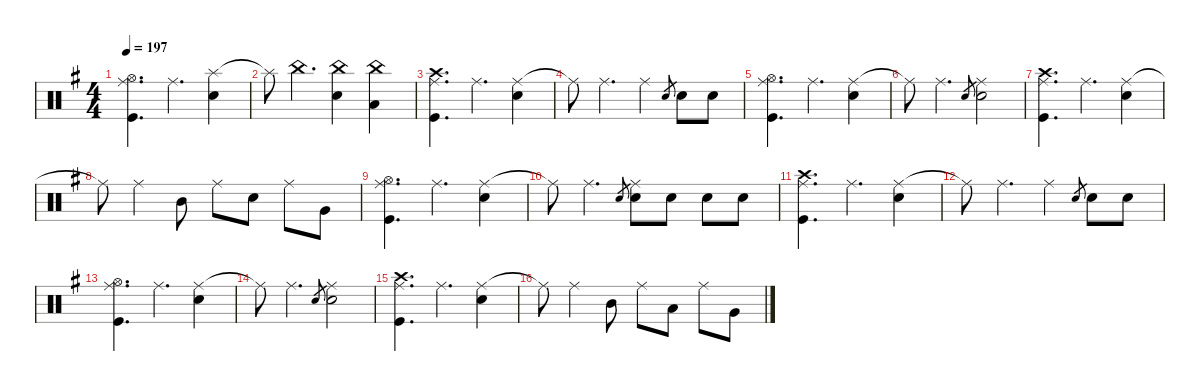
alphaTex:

\defaultSystemsLayout 4
\hideDynamics
\bracketExtendMode nobrackets
\singleTrackTrackNamePolicy hidden
\multiTrackTrackNamePolicy hidden
\firstSystemTrackNameMode fullname
\firstSystemTrackNameOrientation horizontal
\otherSystemsTrackNameOrientation horizontal
\track ("Drums" "drm.") {defaultSystemsLayout 4 instrument percussion}
\staff {score}
\articulation defaults
\ts (4 4)
\tempo 197
\clef neutral
\ks eminor
("Hi-Hat (open)"{acc forcenatural} "Ride (middle)"{acc forcenatural} "Kick (hit)"{acc forcenatural}).4{d dy f beam Down} "Ride (middle)"{acc forcenatural}.4{d beam Down} ("Splash (hit)"{acc forcenatural} "Snare (hit) 2"{acc forcenatural}).4{dy mp beam Down} |
"Splash (hit)"{t acc forcenatural}.8{dy f beam Down} "China (hit)"{acc forcenatural}.4{d dy p beam Down} ("China (hit)"{acc forcenatural} "Snare (hit) 2"{acc forcenatural}).4{dy mp beam Down} ("China (hit)"{acc forcenatural} "Low Tom (hit)"{acc forcenatural}).4{dy mf beam Down} |
("Crash high (hit)"{acc forcenatural} "Ride (middle)"{acc forcenatural} "Kick (hit)"{acc forcenatural}).4{d dy f beam Down} "Ride (middle)"{acc forcenatural}.4{d beam Down} ("Ride (middle)"{acc forcenatural} "Snare (hit) 2"{acc forcenatural}).4{beam Down} |
"Ride (middle)"{t acc forcenatural}.8{beam Down} "Ride (middle)"{acc forcenatural}.4{d beam Down} "Ride (middle)"{acc forcenatural}.4{beam Down} "Electric Snare (hit)"{acc forcenatural}.8{gr dy p beam Up} "Snare (hit) 2"{acc forcenatural}.8{dy mp beam Down} "Snare (hit) 2"{acc forcenatural}.8{dy mf beam Down} |
("Hi-Hat (open)"{acc forcenatural} "Ride (middle)"{acc forcenatural} "Kick (hit)"{acc forcenatural}).4{d dy f beam Down} "Ride (middle)"{acc forcenatural}.4{d beam Down} ("Ride (middle)"{acc forcenatural} "Snare (hit) 2"{acc forcenatural}).4{beam Down} |
"Ride (middle)"{t acc forcenatural}.8{beam Down} "Ride (middle)"{acc forcenatural}.4{d beam Down} "Electric Snare (hit)"{acc forcenatural}.8{gr dy pp beam Up} ("Ride (middle)"{acc forcenatural} "Snare (hit) 2"{acc forcenatural}).2{dy f beam Down} |
("Crash high (hit)"{acc forcenatural} "Ride (middle)"{acc forcenatural} "Kick (hit)"{acc forcenatural}).4{d beam Down} "Ride (middle)"{acc forcenatural}.4{d beam Down} ("Ride (middle)"{acc forcenatural} "Snare (hit) 2"{acc forcenatural}).4{beam Down} |
"Ride (middle)"{t acc forcenatural}.8{beam Down} "Ride (middle)"{acc forcenatural}.4{beam Down} "Mid Tom (hit)"{acc forcenatural}.8{dy mp beam Down} "Ride (middle)"{acc forcenatural}.8{dy f beam Down} "Snare (hit) 2"{acc forcenatural}.8{dy mp beam Down} "Ride (middle)"{acc forcenatural}.8{dy f beam Down} "Very Low Tom (hit)"{acc forcenatural}.8{dy mp beam Down} |
("Hi-Hat (open)"{acc forcenatural} "Ride (middle)"{acc forcenatural} "Kick (hit)"{acc forcenatural}).4{d dy f beam Down} "Ride (middle)"{acc forcenatural}.4{d beam Down} ("Ride (middle)"{acc forcenatural} "Snare (hit) 2"{acc forcenatural}).4{beam Down} |
"Ride (middle)"{t acc forcenatural}.8{beam Down} "Ride (middle)"{acc forcenatural}.4{d beam Down} "Electric Snare (hit)"{acc forcenatural}.8{gr dy pp beam Up} ("Ride (middle)"{acc forcenatural} "Snare (hit) 2"{acc forcenatural}).8{dy f beam Down} "Snare (hit) 2"{acc forcenatural}.8{dy mp beam Down} "Snare (hit) 2"{acc forcenatural}.8{beam Down} "Snare (hit) 2"{acc forcenatural}.8{dy mf beam Down} |
("Crash high (hit)"{acc forcenatural} "Ride (middle)"{acc forcenatural} "Kick (hit)"{acc forcenatural}).4{d dy f beam Down} "Ride (middle)"{acc forcenatural}.4{d beam Down} ("Ride (middle)"{acc forcenatural} "Snare (hit) 2"{acc forcenatural}).4{beam Down} |
"Ride (middle)"{t acc forcenatural}.8{beam Down} "Ride (middle)"{acc forcenatural}.4{d beam Down} "Ride (middle)"{acc forcenatural}.4{beam Down} "Electric Snare (hit)"{acc forcenatural}.8{gr dy p beam Up} "Snare (hit) 2"{acc forcenatural}.8{dy mp beam Down} "Snare (hit) 2"{acc forcenatural}.8{dy mf beam Down} |
("Hi-Hat (open)"{acc forcenatural} "Ride (middle)"{acc forcenatural} "Kick (hit)"{acc forcenatural}).4{d dy f beam Down} "Ride (middle)"{acc forcenatural}.4{d beam Down} ("Ride (middle)"{acc forcenatural} "Snare (hit) 2"{acc forcenatural}).4{beam Down} |
"Ride (middle)"{t acc forcenatural}.8{beam Down} "Ride (middle)"{acc forcenatural}.4{d beam Down} "Electric Snare (hit)"{acc forcenatural}.8{gr dy pp beam Up} ("Ride (middle)"{acc forcenatural} "Snare (hit) 2"{acc forcenatural}).2{dy f beam Down} |
("Crash high (hit)"{acc forcenatural} "Ride (middle)"{acc forcenatural} "Kick (hit)"{acc forcenatural}).4{d beam Down} "Ride (middle)"{acc forcenatural}.4{d beam Down} ("Ride (middle)"{acc forcenatural} "Snare (hit) 2"{acc forcenatural}).4{beam Down} |
"Ride (middle)"{t acc forcenatural}.8{beam Down} "Ride (middle)"{acc forcenatural}.4{beam Down} "Mid Tom (hit)"{acc forcenatural}.8{dy mp beam Down} "Ride (middle)"{acc forcenatural}.8{dy f beam Down} "Low Tom (hit)"{acc forcenatural}.8{dy mp beam Down} "Ride (middle)"{acc forcenatural}.8{dy f beam Down} "Very Low Tom (hit)"{acc forcenatural}.8{dy mp beam Down}
